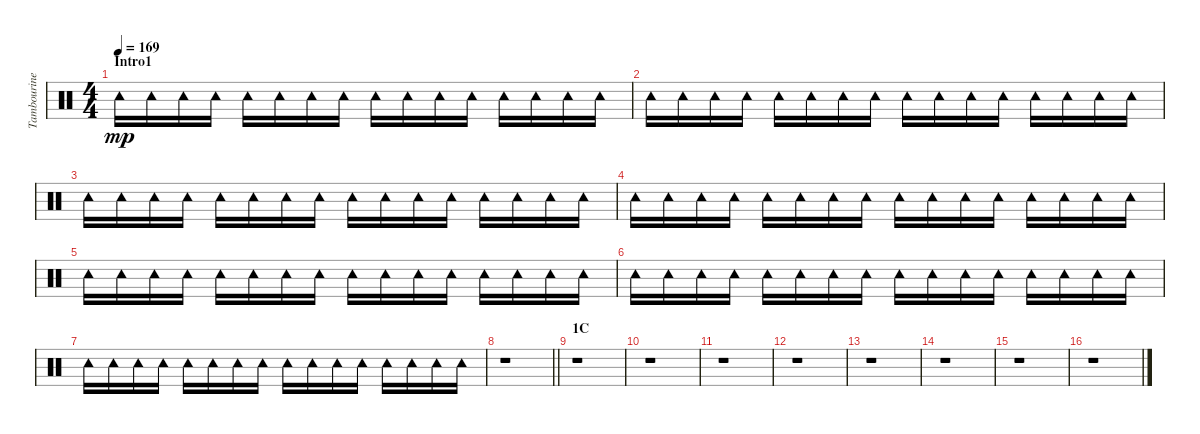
\track ("Tambourine" "Tambourine") {instrument percussion}
\staff {score}
\articulation defaults
\ts (4 4)
\section ("" "Intro1")
\tempo 169
\clef neutral
\ks c "Tambourine (hit)".16{dy mp} "Tambourine (hit)".16 "Tambourine (hit)".16 "Tambourine (hit)".16 "Tambourine (hit)".16 "Tambourine (hit)".16 "Tambourine (hit)".16 "Tambourine (hit)".16 "Tambourine (hit)".16 "Tambourine (hit)".16 "Tambourine (hit)".16 "Tambourine (hit)".16 "Tambourine (hit)".16 "Tambourine (hit)".16 "Tambourine (hit)".16 "Tambourine (hit)".16
|
"Tambourine (hit)".16 "Tambourine (hit)".16 "Tambourine (hit)".16 "Tambourine (hit)".16 "Tambourine (hit)".16 "Tambourine (hit)".16 "Tambourine (hit)".16 "Tambourine (hit)".16 "Tambourine (hit)".16 "Tambourine (hit)".16 "Tambourine (hit)".16 "Tambourine (hit)".16 "Tambourine (hit)".16 "Tambourine (hit)".16 "Tambourine (hit)".16 "Tambourine (hit)".16 |
"Tambourine (hit)".16 "Tambourine (hit)".16 "Tambourine (hit)".16 "Tambourine (hit)".16 "Tambourine (hit)".16 "Tambourine (hit)".16 "Tambourine (hit)".16 "Tambourine (hit)".16 "Tambourine (hit)".16 "Tambourine (hit)".16 "Tambourine (hit)".16 "Tambourine (hit)".16 "Tambourine (hit)".16 "Tambourine (hit)".16 "Tambourine (hit)".16 "Tambourine (hit)".16 |
"Tambourine (hit)".16 "Tambourine (hit)".16 "Tambourine (hit)".16 "Tambourine (hit)".16 "Tambourine (hit)".16 "Tambourine (hit)".16 "Tambourine (hit)".16 "Tambourine (hit)".16 "Tambourine (hit)".16 "Tambourine (hit)".16 "Tambourine (hit)".16 "Tambourine (hit)".16 "Tambourine (hit)".16 "Tambourine (hit)".16 "Tambourine (hit)".16 "Tambourine (hit)".16 |
"Tambourine (hit)".16 "Tambourine (hit)".16 "Tambourine (hit)".16 "Tambourine (hit)".16 "Tambourine (hit)".16 "Tambourine (hit)".16 "Tambourine (hit)".16 "Tambourine (hit)".16 "Tambourine (hit)".16 "Tambourine (hit)".16 "Tambourine (hit)".16 "Tambourine (hit)".16 "Tambourine (hit)".16 "Tambourine (hit)".16 "Tambourine (hit)".16 "Tambourine (hit)".16 |
"Tambourine (hit)".16 "Tambourine (hit)".16 "Tambourine (hit)".16 "Tambourine (hit)".16 "Tambourine (hit)".16 "Tambourine (hit)".16 "Tambourine (hit)".16 "Tambourine (hit)".16 "Tambourine (hit)".16 "Tambourine (hit)".16 "Tambourine (hit)".16 "Tambourine (hit)".16 "Tambourine (hit)".16 "Tambourine (hit)".16 "Tambourine (hit)".16 "Tambourine (hit)".16 |
"Tambourine (hit)".16 "Tambourine (hit)".16 "Tambourine (hit)".16 "Tambourine (hit)".16 "Tambourine (hit)".16 "Tambourine (hit)".16 "Tambourine (hit)".16 "Tambourine (hit)".16 "Tambourine (hit)".16 "Tambourine (hit)".16 "Tambourine (hit)".16 "Tambourine (hit)".16 "Tambourine (hit)".16 "Tambourine (hit)".16 "Tambourine (hit)".16 "Tambourine (hit)".16 |
\barLineRight lightlight
r.1 |
\section ("" "1C")
r.1 |
r.1 |
r.1 |
r.1 |
r.1 |
r.1 |
r.1 |
r.1
